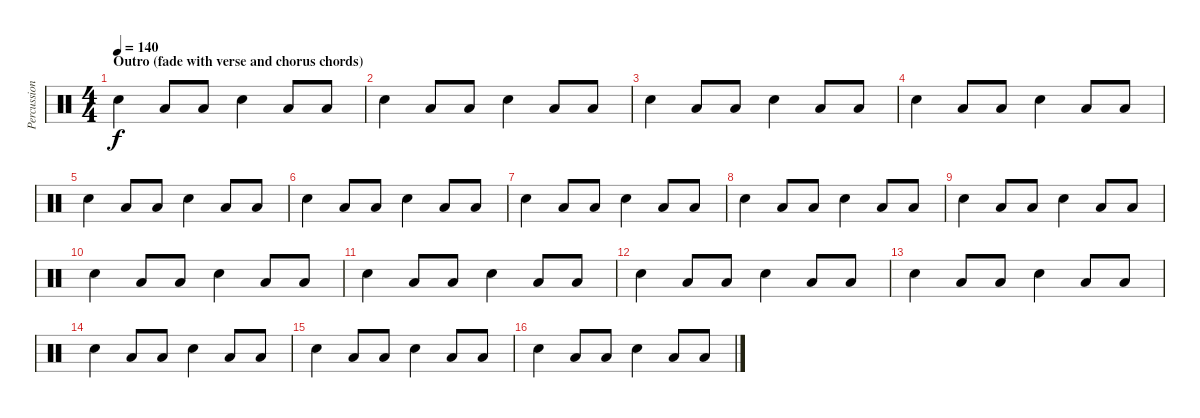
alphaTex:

\track ("Percussion" "Percussion") {instrument percussion}
\staff {score}
\articulation defaults
\ts (4 4)
\section ("" "Outro (fade with verse and chorus chords)")
\tempo 140
\clef neutral
\ks c "Electric Snare (hit)".4{dy f} "Low Floor Tom (hit)".8 "Low Floor Tom (hit)".8 "Electric Snare (hit)".4 "Low Floor Tom (hit)".8 "Low Floor Tom (hit)".8
|
"Electric Snare (hit)".4 "Low Floor Tom (hit)".8 "Low Floor Tom (hit)".8 "Electric Snare (hit)".4 "Low Floor Tom (hit)".8 "Low Floor Tom (hit)".8 |
"Electric Snare (hit)".4 "Low Floor Tom (hit)".8 "Low Floor Tom (hit)".8 "Electric Snare (hit)".4 "Low Floor Tom (hit)".8 "Low Floor Tom (hit)".8 |
"Electric Snare (hit)".4 "Low Floor Tom (hit)".8 "Low Floor Tom (hit)".8 "Electric Snare (hit)".4 "Low Floor Tom (hit)".8 "Low Floor Tom (hit)".8 |
"Electric Snare (hit)".4 "Low Floor Tom (hit)".8 "Low Floor Tom (hit)".8 "Electric Snare (hit)".4 "Low Floor Tom (hit)".8 "Low Floor Tom (hit)".8 |
"Electric Snare (hit)".4 "Low Floor Tom (hit)".8 "Low Floor Tom (hit)".8 "Electric Snare (hit)".4 "Low Floor Tom (hit)".8 "Low Floor Tom (hit)".8 |
"Electric Snare (hit)".4 "Low Floor Tom (hit)".8 "Low Floor Tom (hit)".8 "Electric Snare (hit)".4 "Low Floor Tom (hit)".8 "Low Floor Tom (hit)".8 |
"Electric Snare (hit)".4 "Low Floor Tom (hit)".8 "Low Floor Tom (hit)".8 "Electric Snare (hit)".4 "Low Floor Tom (hit)".8 "Low Floor Tom (hit)".8 |
"Electric Snare (hit)".4 "Low Floor Tom (hit)".8 "Low Floor Tom (hit)".8 "Electric Snare (hit)".4 "Low Floor Tom (hit)".8 "Low Floor Tom (hit)".8 |
"Electric Snare (hit)".4 "Low Floor Tom (hit)".8 "Low Floor Tom (hit)".8 "Electric Snare (hit)".4 "Low Floor Tom (hit)".8 "Low Floor Tom (hit)".8 |
"Electric Snare (hit)".4 "Low Floor Tom (hit)".8 "Low Floor Tom (hit)".8 "Electric Snare (hit)".4 "Low Floor Tom (hit)".8 "Low Floor Tom (hit)".8 |
"Electric Snare (hit)".4 "Low Floor Tom (hit)".8 "Low Floor Tom (hit)".8 "Electric Snare (hit)".4 "Low Floor Tom (hit)".8 "Low Floor Tom (hit)".8 |
"Electric Snare (hit)".4{volume 11} "Low Floor Tom (hit)".8 "Low Floor Tom (hit)".8 "Electric Snare (hit)".4 "Low Floor Tom (hit)".8 "Low Floor Tom (hit)".8 |
"Electric Snare (hit)".4 "Low Floor Tom (hit)".8 "Low Floor Tom (hit)".8 "Electric Snare (hit)".4 "Low Floor Tom (hit)".8 "Low Floor Tom (hit)".8 |
"Electric Snare (hit)".4 "Low Floor Tom (hit)".8 "Low Floor Tom (hit)".8 "Electric Snare (hit)".4 "Low Floor Tom (hit)".8 "Low Floor Tom (hit)".8 |
"Electric Snare (hit)".4 "Low Floor Tom (hit)".8 "Low Floor Tom (hit)".8 "Electric Snare (hit)".4 "Low Floor Tom (hit)".8 "Low Floor Tom (hit)".8
